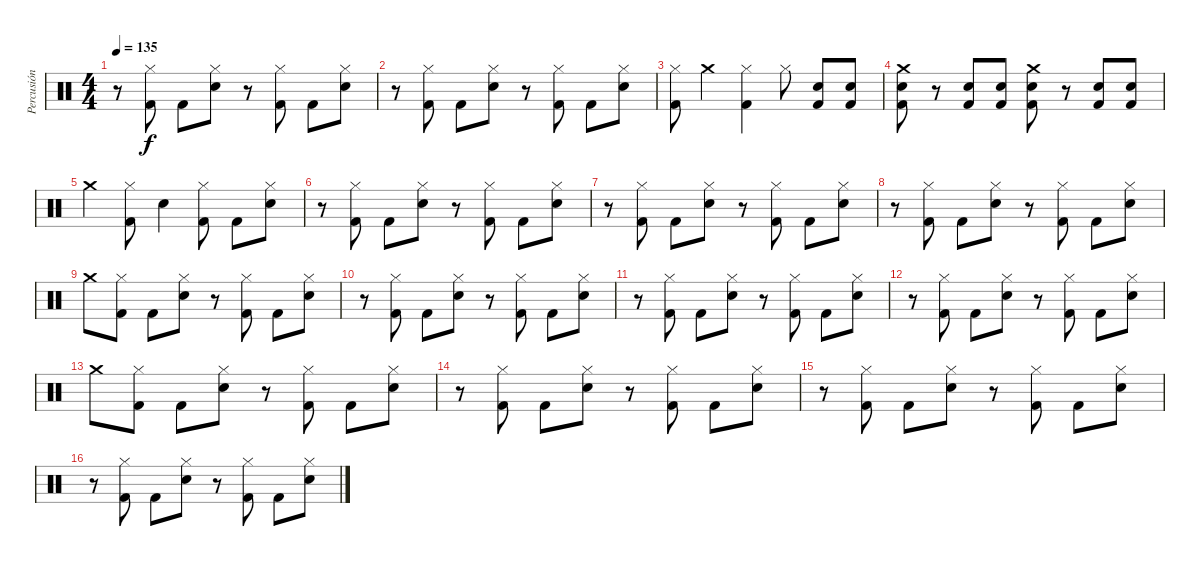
\track ("Percusión" "Percusión") {instrument percussion}
\staff {score}
\articulation defaults
\ts (4 4)
\tempo 135
\clef neutral
\ks c
r.8{dy f} ("Hi-Hat (closed)" "Kick (hit) 2").8 "Kick (hit) 2".8 ("Snare (hit) 2" "Hi-Hat (closed)").8 r.8 ("Hi-Hat (closed)" "Kick (hit) 2").8 "Kick (hit) 2".8 ("Snare (hit) 2" "Hi-Hat (closed)").8 |
r.8 ("Hi-Hat (closed)" "Kick (hit) 2").8 "Kick (hit) 2".8 ("Snare (hit) 2" "Hi-Hat (closed)").8 r.8 ("Hi-Hat (closed)" "Kick (hit) 2").8 "Kick (hit) 2".8 ("Snare (hit) 2" "Hi-Hat (closed)").8 |
("Hi-Hat (closed)" "Kick (hit) 2").8 "Crash medium (hit)".4 ("Hi-Hat (closed)" "Kick (hit) 2").4 "Hi-Hat (closed)".8 ("Snare (hit) 2" "Kick (hit) 2").8 ("Snare (hit) 2" "Kick (hit) 2").8 |
("Crash medium (hit)" "Snare (hit) 2" "Kick (hit) 2").8 r.8 ("Snare (hit) 2" "Kick (hit) 2").8 ("Snare (hit) 2" "Kick (hit) 2").8 ("Crash medium (hit)" "Snare (hit) 2" "Kick (hit) 2").8 r.8 ("Snare (hit) 2" "Kick (hit) 2").8 ("Snare (hit) 2" "Kick (hit) 2").8 |
"Crash medium (hit)".4 ("Hi-Hat (closed)" "Kick (hit) 2").8 "Snare (hit) 2".4 ("Hi-Hat (closed)" "Kick (hit) 2").8 "Kick (hit) 2".8 ("Snare (hit) 2" "Hi-Hat (closed)").8 |
r.8 ("Hi-Hat (closed)" "Kick (hit) 2").8 "Kick (hit) 2".8 ("Snare (hit) 2" "Hi-Hat (closed)").8 r.8 ("Hi-Hat (closed)" "Kick (hit) 2").8 "Kick (hit) 2".8 ("Snare (hit) 2" "Hi-Hat (closed)").8 |
r.8 ("Hi-Hat (closed)" "Kick (hit) 2").8 "Kick (hit) 2".8 ("Snare (hit) 2" "Hi-Hat (closed)").8 r.8 ("Hi-Hat (closed)" "Kick (hit) 2").8 "Kick (hit) 2".8 ("Snare (hit) 2" "Hi-Hat (closed)").8 |
r.8 ("Hi-Hat (closed)" "Kick (hit) 2").8 "Kick (hit) 2".8 ("Snare (hit) 2" "Hi-Hat (closed)").8 r.8 ("Hi-Hat (closed)" "Kick (hit) 2").8 "Kick (hit) 2".8 ("Snare (hit) 2" "Hi-Hat (closed)").8 |
"Crash medium (hit)".8 ("Hi-Hat (closed)" "Kick (hit) 2").8 "Kick (hit) 2".8 ("Snare (hit) 2" "Hi-Hat (closed)").8 r.8 ("Hi-Hat (closed)" "Kick (hit) 2").8 "Kick (hit) 2".8 ("Snare (hit) 2" "Hi-Hat (closed)").8 |
r.8 ("Hi-Hat (closed)" "Kick (hit) 2").8 "Kick (hit) 2".8 ("Snare (hit) 2" "Hi-Hat (closed)").8 r.8 ("Hi-Hat (closed)" "Kick (hit) 2").8 "Kick (hit) 2".8 ("Snare (hit) 2" "Hi-Hat (closed)").8 |
r.8 ("Hi-Hat (closed)" "Kick (hit) 2").8 "Kick (hit) 2".8 ("Snare (hit) 2" "Hi-Hat (closed)").8 r.8 ("Hi-Hat (closed)" "Kick (hit) 2").8 "Kick (hit) 2".8 ("Snare (hit) 2" "Hi-Hat (closed)").8 |
r.8 ("Hi-Hat (closed)" "Kick (hit) 2").8 "Kick (hit) 2".8 ("Snare (hit) 2" "Hi-Hat (closed)").8 r.8 ("Hi-Hat (closed)" "Kick (hit) 2").8 "Kick (hit) 2".8 ("Snare (hit) 2" "Hi-Hat (closed)").8 |
"Crash medium (hit)".8 ("Hi-Hat (closed)" "Kick (hit) 2").8 "Kick (hit) 2".8 ("Snare (hit) 2" "Hi-Hat (closed)").8 r.8 ("Hi-Hat (closed)" "Kick (hit) 2").8 "Kick (hit) 2".8 ("Snare (hit) 2" "Hi-Hat (closed)").8 |
r.8 ("Hi-Hat (closed)" "Kick (hit) 2").8 "Kick (hit) 2".8 ("Snare (hit) 2" "Hi-Hat (closed)").8 r.8 ("Hi-Hat (closed)" "Kick (hit) 2").8 "Kick (hit) 2".8 ("Snare (hit) 2" "Hi-Hat (closed)").8 |
r.8 ("Hi-Hat (closed)" "Kick (hit) 2").8 "Kick (hit) 2".8 ("Snare (hit) 2" "Hi-Hat (closed)").8 r.8 ("Hi-Hat (closed)" "Kick (hit) 2").8 "Kick (hit) 2".8 ("Snare (hit) 2" "Hi-Hat (closed)").8 |
r.8 ("Hi-Hat (closed)" "Kick (hit) 2").8 "Kick (hit) 2".8 ("Snare (hit) 2" "Hi-Hat (closed)").8 r.8 ("Hi-Hat (closed)" "Kick (hit) 2").8 "Kick (hit) 2".8 ("Snare (hit) 2" "Hi-Hat (closed)").8
